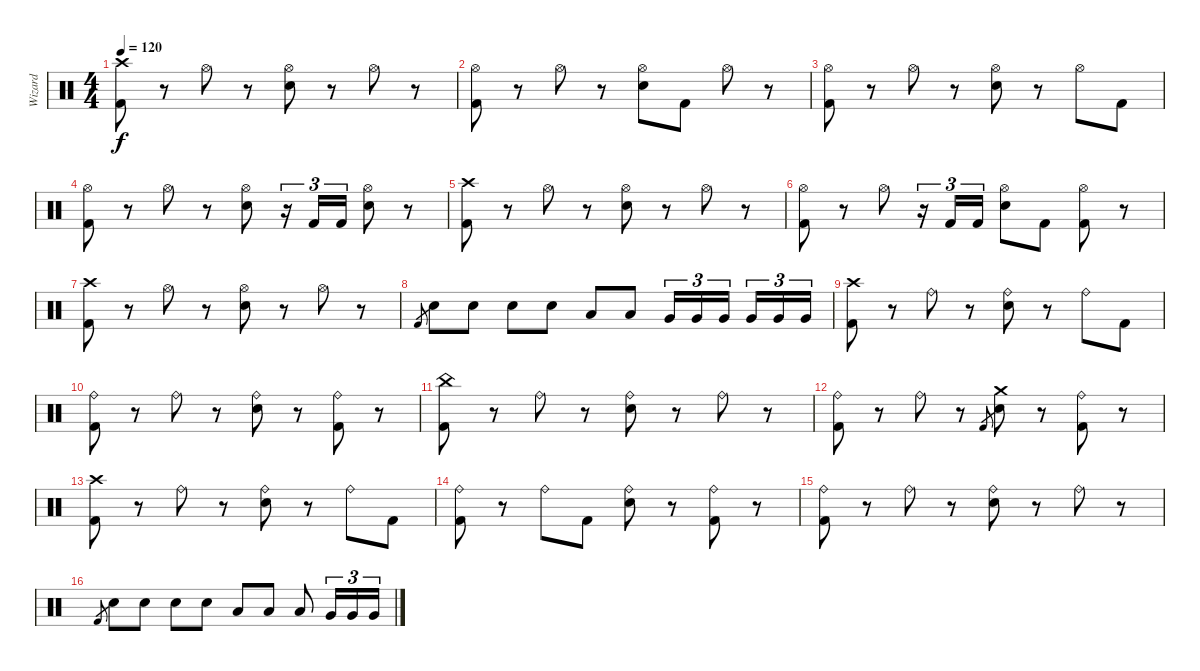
\track ("Wizard" "Wizard") {instrument percussion}
\staff {score}
\articulation defaults
\ts (4 4)
\tempo 120
\clef neutral
\ks c
("Crash high (hit)" "Kick (hit) 2").8{dy f} r.8 "Hi-Hat (open)".8 r.8 ("Hi-Hat (open)" "Snare (hit) 2").8 r.8 "Hi-Hat (open)".8 r.8 |
("Hi-Hat (open)" "Kick (hit) 2").8 r.8 "Hi-Hat (open)".8 r.8 ("Hi-Hat (open)" "Snare (hit) 2").8 "Kick (hit) 2".8 "Hi-Hat (open)".8 r.8 |
("Hi-Hat (open)" "Kick (hit) 2").8 r.8 "Hi-Hat (open)".8 r.8 ("Hi-Hat (open)" "Snare (hit) 2").8 r.8 "Hi-Hat (open)".8 "Kick (hit) 2".8 |
("Hi-Hat (open)" "Kick (hit) 2").8 r.8 "Hi-Hat (open)".8 r.8 ("Hi-Hat (open)" "Snare (hit) 2").8 r.16{tu (3 2)} "Kick (hit) 2".16{tu (3 2)} "Kick (hit) 2".16{tu (3 2)} ("Hi-Hat (open)" "Snare (hit) 2").8 r.8 |
("Crash high (hit)" "Kick (hit) 2").8 r.8 "Hi-Hat (open)".8 r.8 ("Hi-Hat (open)" "Snare (hit) 2").8 r.8 "Hi-Hat (open)".8 r.8 |
("Hi-Hat (open)" "Kick (hit) 2").8 r.8 "Hi-Hat (open)".8 r.16{tu (3 2)} "Kick (hit) 2".16{tu (3 2)} "Kick (hit) 2".16{tu (3 2)} ("Hi-Hat (open)" "Snare (hit) 2").8 "Kick (hit) 2".8 ("Hi-Hat (open)" "Kick (hit) 2").8 r.8 |
("Crash high (hit)" "Kick (hit) 2").8 r.8 "Hi-Hat (open)".8 r.8 ("Hi-Hat (open)" "Snare (hit) 2").8 r.8 "Hi-Hat (open)".8 r.8 |
"Kick (hit) 2".8{gr} "Snare (hit) 2".8 "Snare (hit) 2".8 "Snare (hit) 2".8 "Snare (hit) 2".8 "Low Tom (hit)".8 "Low Tom (hit)".8 "Very Low Tom (hit)".16{tu (3 2)} "Very Low Tom (hit)".16{tu (3 2)} "Very Low Tom (hit)".16{tu (3 2) beam splitsecondary} "Very Low Tom (hit)".16{tu (3 2)} "Very Low Tom (hit)".16{tu (3 2)} "Very Low Tom (hit)".16{tu (3 2)} |
("Crash high (hit)" "Kick (hit) 2").8 r.8 "Ride (bell)".8 r.8 ("Ride (bell)" "Snare (hit) 2").8 r.8 "Ride (bell)".8 "Kick (hit) 2".8 |
("Ride (bell)" "Kick (hit) 2").8 r.8 "Ride (bell)".8 r.8 ("Ride (bell)" "Snare (hit) 2").8 r.8 ("Ride (bell)" "Kick (hit) 2").8 r.8 |
("China (hit)" "Kick (hit) 2").8 r.8 "Ride (bell)".8 r.8 ("Ride (bell)" "Snare (hit) 2").8 r.8 "Ride (bell)".8 r.8 |
("Ride (bell)" "Kick (hit) 2").8 r.8 "Ride (bell)".8 r.8 "Kick (hit) 2".8{gr} ("Crash medium (hit)" "Snare (hit) 2").8 r.8 ("Ride (bell)" "Kick (hit) 2").8 r.8 |
("Crash high (hit)" "Kick (hit) 2").8 r.8 "Ride (bell)".8 r.8 ("Ride (bell)" "Snare (hit) 2").8 r.8 "Ride (bell)".8 "Kick (hit) 2".8 |
("Ride (bell)" "Kick (hit) 2").8 r.8 "Ride (bell)".8 "Kick (hit) 2".8 ("Ride (bell)" "Snare (hit) 2").8 r.8 ("Ride (bell)" "Kick (hit) 2").8 r.8 |
("Ride (bell)" "Kick (hit) 2").8 r.8 "Ride (bell)".8 r.8 ("Ride (bell)" "Snare (hit) 2").8 r.8 "Ride (bell)".8 r.8 |
"Kick (hit) 2".8{gr} "Snare (hit) 2".8 "Snare (hit) 2".8 "Snare (hit) 2".8 "Snare (hit) 2".8 "Low Tom (hit)".8 "Low Tom (hit)".8 "Low Tom (hit)".8 "Very Low Tom (hit)".16{tu (3 2)} "Very Low Tom (hit)".16{tu (3 2)} "Very Low Tom (hit)".16{tu (3 2)}
